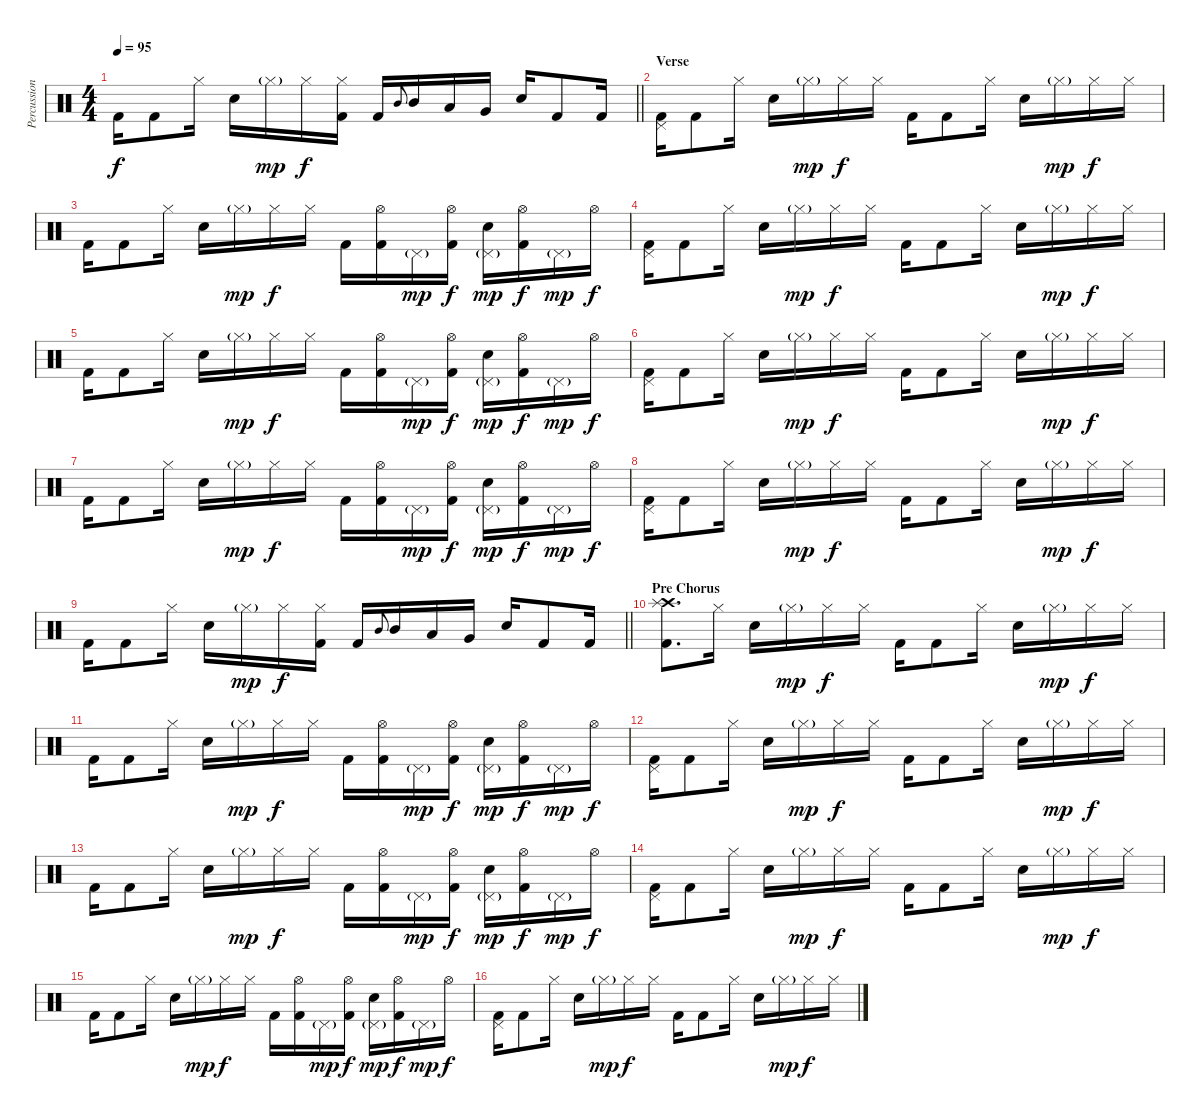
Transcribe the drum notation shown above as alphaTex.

\track ("Percussion" "Percussion") {instrument percussion}
\staff {score}
\articulation defaults
\ts (4 4)
\tempo 95
\clef neutral
\barLineRight lightlight
\ks c "Kick (hit) 2".16{dy f} "Kick (hit) 2".8 "Hi-Hat (closed)".16 "Electric Snare (hit)".16 "Hi-Hat (closed)"{g}.16{dy mp} "Hi-Hat (closed)".16{dy f}
("Hi-Hat (closed)" "Kick (hit) 2").16 "Kick (hit) 2".16 "Mid Tom (hit)".8{gr onbeat} "Mid Tom (hit)".16 "Low Tom (hit)".16 "Very Low Tom (hit)".16 "Electric Snare (hit)".16 "Kick (hit) 2".8 "Kick (hit) 2".16 |
\section ("" "Verse")
("Pedal Hi-Hat (hit)" "Kick (hit) 2").16 "Kick (hit) 2".8 "Hi-Hat (closed)".16 "Electric Snare (hit)".16 "Hi-Hat (closed)"{g}.16{dy mp} "Hi-Hat (closed)".16{dy f} "Hi-Hat (closed)".16 "Kick (hit) 2".16 "Kick (hit) 2".8 "Hi-Hat (closed)".16 "Electric Snare (hit)".16 "Hi-Hat (closed)"{g}.16{dy mp} "Hi-Hat (closed)".16{dy f} "Hi-Hat (closed)".16 |
"Kick (hit) 2".16 "Kick (hit) 2".8 "Hi-Hat (closed)".16 "Electric Snare (hit)".16 "Hi-Hat (closed)"{g}.16{dy mp} "Hi-Hat (closed)".16{dy f} "Hi-Hat (closed)".16 "Kick (hit) 2".16 ("Hi-Hat (open)" "Kick (hit) 2").16 "Pedal Hi-Hat (hit)"{g}.16{dy mp} ("Hi-Hat (open)" "Kick (hit) 2").16{dy f} ("Pedal Hi-Hat (hit)"{g} "Electric Snare (hit)").16{dy mp} ("Hi-Hat (open)" "Kick (hit) 2").16{dy f} "Pedal Hi-Hat (hit)"{g}.16{dy mp} "Hi-Hat (open)".16{dy f} |
("Pedal Hi-Hat (hit)" "Kick (hit) 2").16 "Kick (hit) 2".8 "Hi-Hat (closed)".16 "Electric Snare (hit)".16 "Hi-Hat (closed)"{g}.16{dy mp} "Hi-Hat (closed)".16{dy f} "Hi-Hat (closed)".16 "Kick (hit) 2".16 "Kick (hit) 2".8 "Hi-Hat (closed)".16 "Electric Snare (hit)".16 "Hi-Hat (closed)"{g}.16{dy mp} "Hi-Hat (closed)".16{dy f} "Hi-Hat (closed)".16 |
"Kick (hit) 2".16 "Kick (hit) 2".8 "Hi-Hat (closed)".16 "Electric Snare (hit)".16 "Hi-Hat (closed)"{g}.16{dy mp} "Hi-Hat (closed)".16{dy f} "Hi-Hat (closed)".16 "Kick (hit) 2".16 ("Hi-Hat (open)" "Kick (hit) 2").16 "Pedal Hi-Hat (hit)"{g}.16{dy mp} ("Hi-Hat (open)" "Kick (hit) 2").16{dy f} ("Pedal Hi-Hat (hit)"{g} "Electric Snare (hit)").16{dy mp} ("Hi-Hat (open)" "Kick (hit) 2").16{dy f} "Pedal Hi-Hat (hit)"{g}.16{dy mp} "Hi-Hat (open)".16{dy f} |
("Pedal Hi-Hat (hit)" "Kick (hit) 2").16 "Kick (hit) 2".8 "Hi-Hat (closed)".16 "Electric Snare (hit)".16 "Hi-Hat (closed)"{g}.16{dy mp} "Hi-Hat (closed)".16{dy f} "Hi-Hat (closed)".16 "Kick (hit) 2".16 "Kick (hit) 2".8 "Hi-Hat (closed)".16 "Electric Snare (hit)".16 "Hi-Hat (closed)"{g}.16{dy mp} "Hi-Hat (closed)".16{dy f} "Hi-Hat (closed)".16 |
"Kick (hit) 2".16 "Kick (hit) 2".8 "Hi-Hat (closed)".16 "Electric Snare (hit)".16 "Hi-Hat (closed)"{g}.16{dy mp} "Hi-Hat (closed)".16{dy f} "Hi-Hat (closed)".16 "Kick (hit) 2".16 ("Hi-Hat (open)" "Kick (hit) 2").16 "Pedal Hi-Hat (hit)"{g}.16{dy mp} ("Hi-Hat (open)" "Kick (hit) 2").16{dy f} ("Pedal Hi-Hat (hit)"{g} "Electric Snare (hit)").16{dy mp} ("Hi-Hat (open)" "Kick (hit) 2").16{dy f} "Pedal Hi-Hat (hit)"{g}.16{dy mp} "Hi-Hat (open)".16{dy f} |
("Pedal Hi-Hat (hit)" "Kick (hit) 2").16 "Kick (hit) 2".8 "Hi-Hat (closed)".16 "Electric Snare (hit)".16 "Hi-Hat (closed)"{g}.16{dy mp} "Hi-Hat (closed)".16{dy f} "Hi-Hat (closed)".16 "Kick (hit) 2".16 "Kick (hit) 2".8 "Hi-Hat (closed)".16 "Electric Snare (hit)".16 "Hi-Hat (closed)"{g}.16{dy mp} "Hi-Hat (closed)".16{dy f} "Hi-Hat (closed)".16 |
\barLineRight lightlight "Kick (hit) 2".16 "Kick (hit) 2".8 "Hi-Hat (closed)".16 "Electric Snare (hit)".16 "Hi-Hat (closed)"{g}.16{dy mp} "Hi-Hat (closed)".16{dy f}
("Hi-Hat (closed)" "Kick (hit) 2").16 "Kick (hit) 2".16 "Mid Tom (hit)".8{gr onbeat} "Mid Tom (hit)".16 "Low Tom (hit)".16 "Very Low Tom (hit)".16 "Electric Snare (hit)".16 "Kick (hit) 2".8 "Kick (hit) 2".16 |
\section ("" "Pre Chorus")
("Crash high (hit)" "Splash (hit)" "Kick (hit) 2").8{d} "Hi-Hat (closed)".16 "Electric Snare (hit)".16 "Hi-Hat (closed)"{g}.16{dy mp} "Hi-Hat (closed)".16{dy f} "Hi-Hat (closed)".16 "Kick (hit) 2".16 "Kick (hit) 2".8 "Hi-Hat (closed)".16 "Electric Snare (hit)".16 "Hi-Hat (closed)"{g}.16{dy mp} "Hi-Hat (closed)".16{dy f} "Hi-Hat (closed)".16 |
"Kick (hit) 2".16 "Kick (hit) 2".8 "Hi-Hat (closed)".16 "Electric Snare (hit)".16 "Hi-Hat (closed)"{g}.16{dy mp} "Hi-Hat (closed)".16{dy f} "Hi-Hat (closed)".16 "Kick (hit) 2".16 ("Hi-Hat (open)" "Kick (hit) 2").16 "Pedal Hi-Hat (hit)"{g}.16{dy mp} ("Hi-Hat (open)" "Kick (hit) 2").16{dy f} ("Pedal Hi-Hat (hit)"{g} "Electric Snare (hit)").16{dy mp} ("Hi-Hat (open)" "Kick (hit) 2").16{dy f} "Pedal Hi-Hat (hit)"{g}.16{dy mp} "Hi-Hat (open)".16{dy f} |
("Pedal Hi-Hat (hit)" "Kick (hit) 2").16 "Kick (hit) 2".8 "Hi-Hat (closed)".16 "Electric Snare (hit)".16 "Hi-Hat (closed)"{g}.16{dy mp} "Hi-Hat (closed)".16{dy f} "Hi-Hat (closed)".16 "Kick (hit) 2".16 "Kick (hit) 2".8 "Hi-Hat (closed)".16 "Electric Snare (hit)".16 "Hi-Hat (closed)"{g}.16{dy mp} "Hi-Hat (closed)".16{dy f} "Hi-Hat (closed)".16 |
"Kick (hit) 2".16 "Kick (hit) 2".8 "Hi-Hat (closed)".16 "Electric Snare (hit)".16 "Hi-Hat (closed)"{g}.16{dy mp} "Hi-Hat (closed)".16{dy f} "Hi-Hat (closed)".16 "Kick (hit) 2".16 ("Hi-Hat (open)" "Kick (hit) 2").16 "Pedal Hi-Hat (hit)"{g}.16{dy mp} ("Hi-Hat (open)" "Kick (hit) 2").16{dy f} ("Pedal Hi-Hat (hit)"{g} "Electric Snare (hit)").16{dy mp} ("Hi-Hat (open)" "Kick (hit) 2").16{dy f} "Pedal Hi-Hat (hit)"{g}.16{dy mp} "Hi-Hat (open)".16{dy f} |
("Pedal Hi-Hat (hit)" "Kick (hit) 2").16 "Kick (hit) 2".8 "Hi-Hat (closed)".16 "Electric Snare (hit)".16 "Hi-Hat (closed)"{g}.16{dy mp} "Hi-Hat (closed)".16{dy f} "Hi-Hat (closed)".16 "Kick (hit) 2".16 "Kick (hit) 2".8 "Hi-Hat (closed)".16 "Electric Snare (hit)".16 "Hi-Hat (closed)"{g}.16{dy mp} "Hi-Hat (closed)".16{dy f} "Hi-Hat (closed)".16 |
"Kick (hit) 2".16 "Kick (hit) 2".8 "Hi-Hat (closed)".16 "Electric Snare (hit)".16 "Hi-Hat (closed)"{g}.16{dy mp} "Hi-Hat (closed)".16{dy f} "Hi-Hat (closed)".16 "Kick (hit) 2".16 ("Hi-Hat (open)" "Kick (hit) 2").16 "Pedal Hi-Hat (hit)"{g}.16{dy mp} ("Hi-Hat (open)" "Kick (hit) 2").16{dy f} ("Pedal Hi-Hat (hit)"{g} "Electric Snare (hit)").16{dy mp} ("Hi-Hat (open)" "Kick (hit) 2").16{dy f} "Pedal Hi-Hat (hit)"{g}.16{dy mp} "Hi-Hat (open)".16{dy f} |
("Pedal Hi-Hat (hit)" "Kick (hit) 2").16 "Kick (hit) 2".8 "Hi-Hat (closed)".16 "Electric Snare (hit)".16 "Hi-Hat (closed)"{g}.16{dy mp} "Hi-Hat (closed)".16{dy f} "Hi-Hat (closed)".16 "Kick (hit) 2".16 "Kick (hit) 2".8 "Hi-Hat (closed)".16 "Electric Snare (hit)".16 "Hi-Hat (closed)"{g}.16{dy mp} "Hi-Hat (closed)".16{dy f} "Hi-Hat (closed)".16
